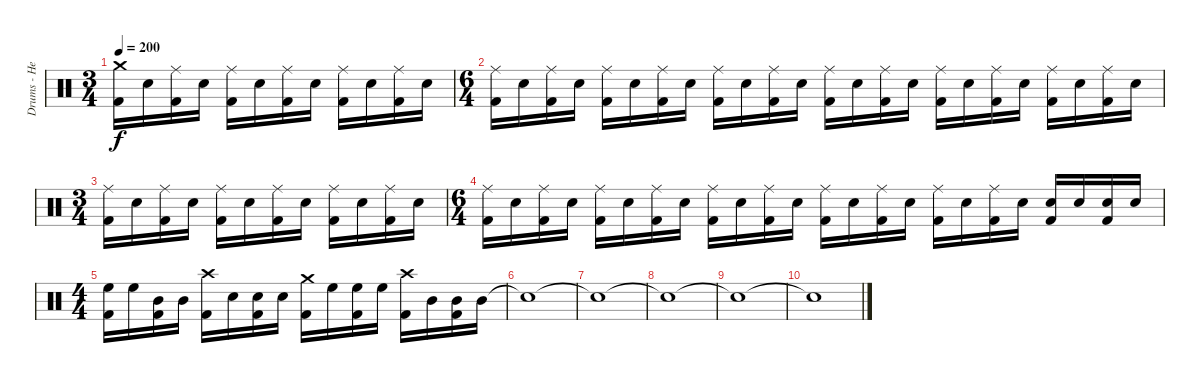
\track ("Drums - Hellhammer" "Drums - He") {instrument percussion}
\staff {score}
\articulation defaults
\ts (3 4)
\tempo 200
\clef neutral
\ks c
("Crash medium (hit)" "Kick (hit) 2").16{dy f} "Electric Snare (hit)".16 ("Ride (middle)" "Kick (hit) 2").16 "Electric Snare (hit)".16 ("Ride (middle)" "Kick (hit) 2").16 "Electric Snare (hit)".16 ("Ride (middle)" "Kick (hit) 2").16 "Electric Snare (hit)".16 ("Ride (middle)" "Kick (hit) 2").16 "Electric Snare (hit)".16 ("Ride (middle)" "Kick (hit) 2").16 "Electric Snare (hit)".16 |
\ts (6 4)
("Ride (middle)" "Kick (hit) 2").16 "Electric Snare (hit)".16 ("Ride (middle)" "Kick (hit) 2").16 "Electric Snare (hit)".16 ("Ride (middle)" "Kick (hit) 2").16 "Electric Snare (hit)".16 ("Ride (middle)" "Kick (hit) 2").16 "Electric Snare (hit)".16 ("Ride (middle)" "Kick (hit) 2").16 "Electric Snare (hit)".16 ("Ride (middle)" "Kick (hit) 2").16 "Electric Snare (hit)".16 ("Ride (middle)" "Kick (hit) 2").16 "Electric Snare (hit)".16 ("Ride (middle)" "Kick (hit) 2").16 "Electric Snare (hit)".16 ("Ride (middle)" "Kick (hit) 2").16 "Electric Snare (hit)".16 ("Ride (middle)" "Kick (hit) 2").16 "Electric Snare (hit)".16 ("Ride (middle)" "Kick (hit) 2").16 "Electric Snare (hit)".16 ("Ride (middle)" "Kick (hit) 2").16 "Electric Snare (hit)".16 |
\ts (3 4)
("Ride (middle)" "Kick (hit) 2").16 "Electric Snare (hit)".16 ("Ride (middle)" "Kick (hit) 2").16 "Electric Snare (hit)".16 ("Ride (middle)" "Kick (hit) 2").16 "Electric Snare (hit)".16 ("Ride (middle)" "Kick (hit) 2").16 "Electric Snare (hit)".16 ("Ride (middle)" "Kick (hit) 2").16 "Electric Snare (hit)".16 ("Ride (middle)" "Kick (hit) 2").16 "Electric Snare (hit)".16 |
\ts (6 4)
("Ride (middle)" "Kick (hit) 2").16 "Electric Snare (hit)".16 ("Ride (middle)" "Kick (hit) 2").16 "Electric Snare (hit)".16 ("Ride (middle)" "Kick (hit) 2").16 "Electric Snare (hit)".16 ("Ride (middle)" "Kick (hit) 2").16 "Electric Snare (hit)".16 ("Ride (middle)" "Kick (hit) 2").16 "Electric Snare (hit)".16 ("Ride (middle)" "Kick (hit) 2").16 "Electric Snare (hit)".16 ("Ride (middle)" "Kick (hit) 2").16 "Electric Snare (hit)".16 ("Ride (middle)" "Kick (hit) 2").16 "Electric Snare (hit)".16 ("Ride (middle)" "Kick (hit) 2").16 "Electric Snare (hit)".16 ("Ride (middle)" "Kick (hit) 2").16 "Electric Snare (hit)".16 ("Electric Snare (hit)" "Kick (hit) 2").16 "Electric Snare (hit)".16 ("Electric Snare (hit)" "Kick (hit) 2").16 "Electric Snare (hit)".16 |
\ts (4 4)
("High Floor Tom (hit)" "Kick (hit) 2").16 "High Floor Tom (hit)".16 ("Mid Tom (hit)" "Kick (hit) 2").16 "Mid Tom (hit)".16 ("Crash high (hit)" "Kick (hit) 2").16 "Electric Snare (hit)".16 ("Electric Snare (hit)" "Kick (hit) 2").16 "Electric Snare (hit)".16 ("Crash medium (hit)" "Kick (hit) 2").16 "High Floor Tom (hit)".16 ("High Floor Tom (hit)" "Kick (hit) 2").16 "High Floor Tom (hit)".16 ("Crash high (hit)" "Kick (hit) 2").16 "Mid Tom (hit)".16 ("Mid Tom (hit)" "Kick (hit) 2").16 "Mid Tom (hit)".16 |
"Snare (hit)"{t}.1 |
"Snare (hit)"{t}.1 |
"Snare (hit)"{t}.1 |
"Snare (hit)"{t}.1 |
"Snare (hit)"{t}.1
